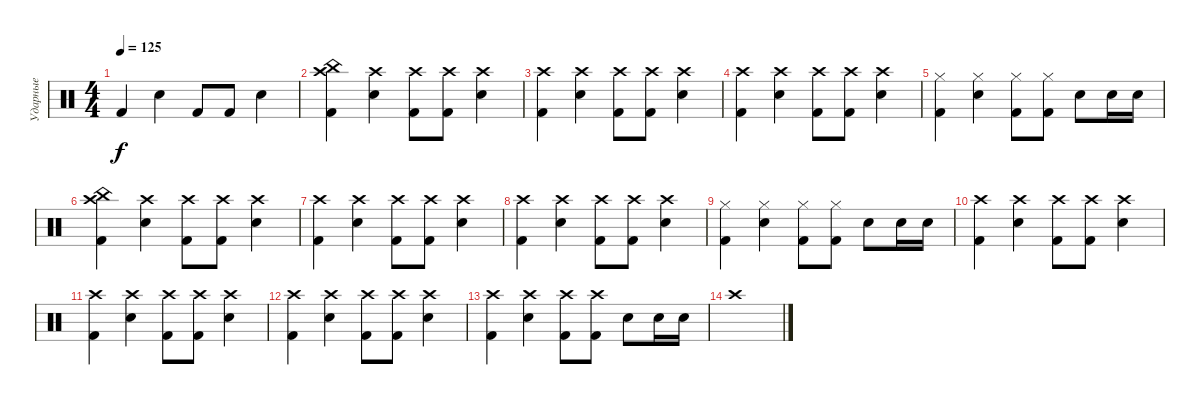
\track ("Ударные" "Ударные") {instrument percussion}
\staff {score}
\articulation defaults
\ts (4 4)
\tempo 125
\clef neutral
\ks c "Kick (hit) 2".4{dy f} "Snare (hit) 2".4 "Kick (hit) 2".8 "Kick (hit) 2".8 "Snare (hit) 2".4
|
("China (hit)" "Crash high (hit)" "Kick (hit) 2").4 ("Crash high (hit)" "Snare (hit) 2").4 ("Crash high (hit)" "Kick (hit) 2").8 ("Crash high (hit)" "Kick (hit) 2").8 ("Crash high (hit)" "Snare (hit) 2").4 |
("Crash high (hit)" "Kick (hit) 2").4 ("Crash high (hit)" "Snare (hit) 2").4 ("Crash high (hit)" "Kick (hit) 2").8 ("Crash high (hit)" "Kick (hit) 2").8 ("Crash high (hit)" "Snare (hit) 2").4 |
("Crash high (hit)" "Kick (hit) 2").4 ("Crash high (hit)" "Snare (hit) 2").4 ("Crash high (hit)" "Kick (hit) 2").8 ("Crash high (hit)" "Kick (hit) 2").8 ("Crash high (hit)" "Snare (hit) 2").4 |
("Hi-Hat (closed)" "Kick (hit) 2").4 ("Hi-Hat (closed)" "Snare (hit) 2").4 ("Hi-Hat (closed)" "Kick (hit) 2").8 ("Hi-Hat (closed)" "Kick (hit) 2").8 "Snare (hit) 2".8 "Snare (hit) 2".16 "Snare (hit) 2".16 |
("China (hit)" "Crash high (hit)" "Kick (hit) 2").4 ("Crash high (hit)" "Snare (hit) 2").4 ("Crash high (hit)" "Kick (hit) 2").8 ("Crash high (hit)" "Kick (hit) 2").8 ("Crash high (hit)" "Snare (hit) 2").4 |
("Crash high (hit)" "Kick (hit) 2").4 ("Crash high (hit)" "Snare (hit) 2").4 ("Crash high (hit)" "Kick (hit) 2").8 ("Crash high (hit)" "Kick (hit) 2").8 ("Crash high (hit)" "Snare (hit) 2").4 |
("Crash high (hit)" "Kick (hit) 2").4 ("Crash high (hit)" "Snare (hit) 2").4 ("Crash high (hit)" "Kick (hit) 2").8 ("Crash high (hit)" "Kick (hit) 2").8 ("Crash high (hit)" "Snare (hit) 2").4 |
("Hi-Hat (closed)" "Kick (hit) 2").4 ("Hi-Hat (closed)" "Snare (hit) 2").4 ("Hi-Hat (closed)" "Kick (hit) 2").8 ("Hi-Hat (closed)" "Kick (hit) 2").8 "Snare (hit) 2".8 "Snare (hit) 2".16 "Snare (hit) 2".16 |
("Crash high (hit)" "Kick (hit) 2").4 ("Crash high (hit)" "Snare (hit) 2").4 ("Crash high (hit)" "Kick (hit) 2").8 ("Crash high (hit)" "Kick (hit) 2").8 ("Crash high (hit)" "Snare (hit) 2").4 |
("Crash high (hit)" "Kick (hit) 2").4 ("Crash high (hit)" "Snare (hit) 2").4 ("Crash high (hit)" "Kick (hit) 2").8 ("Crash high (hit)" "Kick (hit) 2").8 ("Crash high (hit)" "Snare (hit) 2").4 |
("Crash high (hit)" "Kick (hit) 2").4 ("Crash high (hit)" "Snare (hit) 2").4 ("Crash high (hit)" "Kick (hit) 2").8 ("Crash high (hit)" "Kick (hit) 2").8 ("Crash high (hit)" "Snare (hit) 2").4 |
("Crash high (hit)" "Kick (hit) 2").4 ("Crash high (hit)" "Snare (hit) 2").4 ("Crash high (hit)" "Kick (hit) 2").8 ("Crash high (hit)" "Kick (hit) 2").8 "Snare (hit) 2".8 "Snare (hit) 2".16 "Snare (hit) 2".16 |
"Crash high (hit)".1
